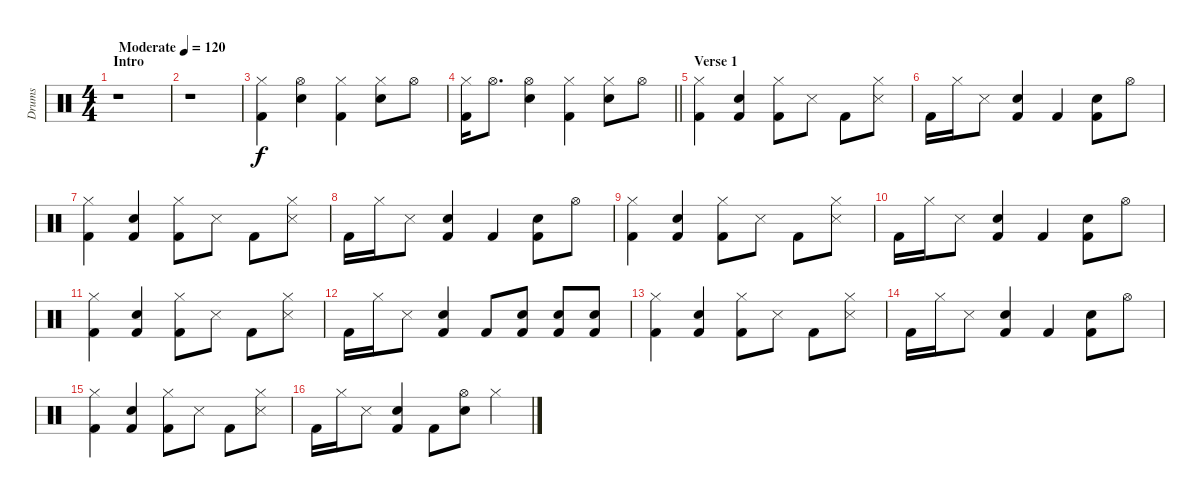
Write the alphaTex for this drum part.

\track ("Drums" "Drums") {instrument percussion}
\staff {score}
\articulation defaults
\ts (4 4)
\section ("" "Intro")
\tempo (120 "Moderate")
\clef neutral
\ks c
r.1{dy f} |
r.1 |
("Hi-Hat (closed)" "Kick (hit) 2").4 ("Hi-Hat (open)" "Snare (hit) 2").4 ("Hi-Hat (closed)" "Kick (hit) 2").4 ("Hi-Hat (closed)" "Snare (hit) 2").8 "Hi-Hat (open)".8 |
\barLineRight lightlight
("Hi-Hat (closed)" "Kick (hit) 2").16 "Hi-Hat (open)".8{d} ("Hi-Hat (open)" "Snare (hit) 2").4 ("Hi-Hat (closed)" "Kick (hit) 2").4 ("Hi-Hat (closed)" "Snare (hit) 2").8 "Hi-Hat (open)".8 |
\section ("" "Verse 1")
("Hi-Hat (closed)" "Kick (hit) 2").4 ("Snare (hit) 2" "Kick (hit) 2").4 ("Hi-Hat (closed)" "Kick (hit) 2").8 "Snare (side stick) 3".8 "Kick (hit) 2".8 ("Hi-Hat (closed)" "Snare (side stick) 3").8 |
"Kick (hit) 2".16 "Hi-Hat (closed)".16 "Snare (side stick) 3".8 ("Snare (hit) 2" "Kick (hit) 2").4 "Kick (hit) 2".4 ("Snare (hit) 2" "Kick (hit) 2").8 "Hi-Hat (open)".8 |
("Hi-Hat (closed)" "Kick (hit) 2").4 ("Snare (hit) 2" "Kick (hit) 2").4 ("Hi-Hat (closed)" "Kick (hit) 2").8 "Snare (side stick) 3".8 "Kick (hit) 2".8 ("Hi-Hat (closed)" "Snare (side stick) 3").8 |
"Kick (hit) 2".16 "Hi-Hat (closed)".16 "Snare (side stick) 3".8 ("Snare (hit) 2" "Kick (hit) 2").4 "Kick (hit) 2".4 ("Snare (hit) 2" "Kick (hit) 2").8 "Hi-Hat (open)".8 |
("Hi-Hat (closed)" "Kick (hit) 2").4 ("Snare (hit) 2" "Kick (hit) 2").4 ("Hi-Hat (closed)" "Kick (hit) 2").8 "Snare (side stick) 3".8 "Kick (hit) 2".8 ("Hi-Hat (closed)" "Snare (side stick) 3").8 |
"Kick (hit) 2".16 "Hi-Hat (closed)".16 "Snare (side stick) 3".8 ("Snare (hit) 2" "Kick (hit) 2").4 "Kick (hit) 2".4 ("Snare (hit) 2" "Kick (hit) 2").8 "Hi-Hat (open)".8 |
("Hi-Hat (closed)" "Kick (hit) 2").4 ("Snare (hit) 2" "Kick (hit) 2").4 ("Hi-Hat (closed)" "Kick (hit) 2").8 "Snare (side stick) 3".8 "Kick (hit) 2".8 ("Hi-Hat (closed)" "Snare (side stick) 3").8 |
"Kick (hit) 2".16 "Hi-Hat (closed)".16 "Snare (side stick) 3".8 ("Snare (hit) 2" "Kick (hit) 2").4 "Kick (hit) 2".8 ("Snare (hit) 2" "Kick (hit) 2").8 ("Snare (hit) 2" "Kick (hit) 2").8 ("Snare (hit) 2" "Kick (hit) 2").8 |
("Hi-Hat (closed)" "Kick (hit) 2").4 ("Snare (hit) 2" "Kick (hit) 2").4 ("Hi-Hat (closed)" "Kick (hit) 2").8 "Snare (side stick) 3".8 "Kick (hit) 2".8 ("Hi-Hat (closed)" "Snare (side stick) 3").8 |
"Kick (hit) 2".16 "Hi-Hat (closed)".16 "Snare (side stick) 3".8 ("Snare (hit) 2" "Kick (hit) 2").4 "Kick (hit) 2".4 ("Snare (hit) 2" "Kick (hit) 2").8 "Hi-Hat (open)".8 |
("Hi-Hat (closed)" "Kick (hit) 2").4 ("Snare (hit) 2" "Kick (hit) 2").4 ("Hi-Hat (closed)" "Kick (hit) 2").8 "Snare (side stick) 3".8 "Kick (hit) 2".8 ("Hi-Hat (closed)" "Snare (side stick) 3").8 |
"Kick (hit) 2".16 "Hi-Hat (closed)".16 "Snare (side stick) 3".8 ("Snare (hit) 2" "Kick (hit) 2").4 "Kick (hit) 2".8 ("Hi-Hat (open)" "Snare (hit) 2").8 "Hi-Hat (closed)".4
